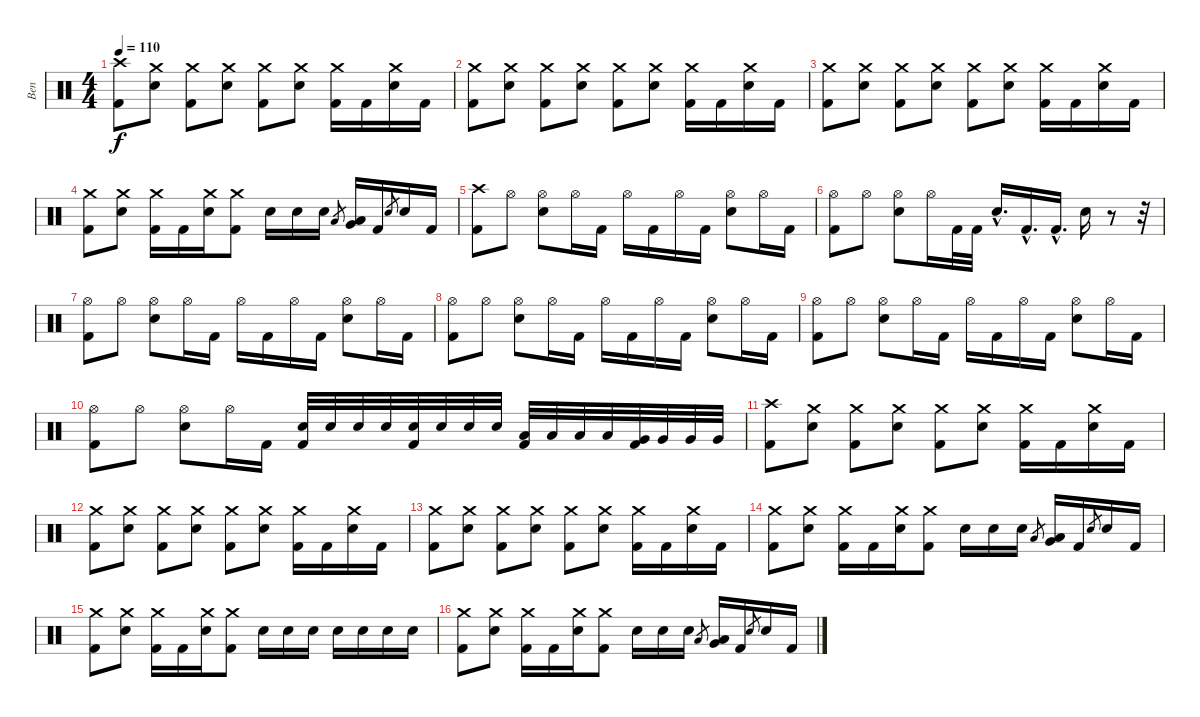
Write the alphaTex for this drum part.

\track ("Ben" "Ben") {instrument percussion}
\staff {score}
\articulation defaults
\ts (4 4)
\tempo 110
\clef neutral
\ks c
("Crash high (hit)" "Kick (hit) 2").8{dy f} ("Crash medium (hit)" "Snare (hit) 2").8 ("Crash medium (hit)" "Kick (hit) 2").8 ("Crash medium (hit)" "Snare (hit) 2").8 ("Crash medium (hit)" "Kick (hit) 2").8 ("Crash medium (hit)" "Snare (hit) 2").8 ("Crash medium (hit)" "Kick (hit) 2").16 "Kick (hit) 2".16 ("Crash medium (hit)" "Snare (hit) 2").16 "Kick (hit) 2".16 |
("Crash medium (hit)" "Kick (hit) 2").8 ("Crash medium (hit)" "Snare (hit) 2").8 ("Crash medium (hit)" "Kick (hit) 2").8 ("Crash medium (hit)" "Snare (hit) 2").8 ("Crash medium (hit)" "Kick (hit) 2").8 ("Crash medium (hit)" "Snare (hit) 2").8 ("Crash medium (hit)" "Kick (hit) 2").16 "Kick (hit) 2".16 ("Crash medium (hit)" "Snare (hit) 2").16 "Kick (hit) 2".16 |
("Crash medium (hit)" "Kick (hit) 2").8 ("Crash medium (hit)" "Snare (hit) 2").8 ("Crash medium (hit)" "Kick (hit) 2").8 ("Crash medium (hit)" "Snare (hit) 2").8 ("Crash medium (hit)" "Kick (hit) 2").8 ("Crash medium (hit)" "Snare (hit) 2").8 ("Crash medium (hit)" "Kick (hit) 2").16 "Kick (hit) 2".16 ("Crash medium (hit)" "Snare (hit) 2").16 "Kick (hit) 2".16 |
("Crash medium (hit)" "Kick (hit) 2").8 ("Crash medium (hit)" "Snare (hit) 2").8 ("Crash medium (hit)" "Kick (hit) 2").16 "Kick (hit) 2".16 ("Crash medium (hit)" "Snare (hit) 2").16 ("Crash medium (hit)" "Kick (hit) 2").8 "Snare (hit) 2".16 "Snare (hit) 2".16 "Snare (hit) 2".16 "Low Floor Tom (hit)".8{gr} ("Low Floor Tom (hit)" "Very Low Tom (hit)").16 "Kick (hit) 2".16 "Snare (hit) 2".8{gr} "Snare (hit) 2".16 "Kick (hit) 2".16 |
("Crash high (hit)" "Kick (hit) 2").8 "Hi-Hat (open)".8 ("Hi-Hat (open)" "Snare (hit) 2").8 "Hi-Hat (open)".16 "Kick (hit) 2".16 "Hi-Hat (open)".16 "Kick (hit) 2".16 "Hi-Hat (open)".16 "Kick (hit) 2".16 ("Hi-Hat (open)" "Snare (hit) 2").8 "Hi-Hat (open)".16 "Kick (hit) 2".16 |
("Hi-Hat (open)" "Kick (hit) 2").8 "Hi-Hat (open)".8 ("Hi-Hat (open)" "Snare (hit) 2").8 "Hi-Hat (open)".16 "Kick (hit) 2".32 "Kick (hit) 2".32 "Snare (hit) 2"{hac}.16{d} "Kick (hit) 2"{hac}.16{d} "Kick (hit) 2"{hac}.16{d} "Snare (hit) 2".16 r.8 r.32 |
("Hi-Hat (open)" "Kick (hit) 2").8 "Hi-Hat (open)".8 ("Hi-Hat (open)" "Snare (hit) 2").8 "Hi-Hat (open)".16 "Kick (hit) 2".16 "Hi-Hat (open)".16 "Kick (hit) 2".16 "Hi-Hat (open)".16 "Kick (hit) 2".16 ("Hi-Hat (open)" "Snare (hit) 2").8 "Hi-Hat (open)".16 "Kick (hit) 2".16 |
("Hi-Hat (open)" "Kick (hit) 2").8 "Hi-Hat (open)".8 ("Hi-Hat (open)" "Snare (hit) 2").8 "Hi-Hat (open)".16 "Kick (hit) 2".16 "Hi-Hat (open)".16 "Kick (hit) 2".16 "Hi-Hat (open)".16 "Kick (hit) 2".16 ("Hi-Hat (open)" "Snare (hit) 2").8 "Hi-Hat (open)".16 "Kick (hit) 2".16 |
("Hi-Hat (open)" "Kick (hit) 2").8 "Hi-Hat (open)".8 ("Hi-Hat (open)" "Snare (hit) 2").8 "Hi-Hat (open)".16 "Kick (hit) 2".16 "Hi-Hat (open)".16 "Kick (hit) 2".16 "Hi-Hat (open)".16 "Kick (hit) 2".16 ("Hi-Hat (open)" "Snare (hit) 2").8 "Hi-Hat (open)".16 "Kick (hit) 2".16 |
("Hi-Hat (open)" "Kick (hit) 2").8 "Hi-Hat (open)".8 ("Hi-Hat (open)" "Snare (hit) 2").8 "Hi-Hat (open)".16 "Kick (hit) 2".16 ("Kick (hit) 2" "Snare (hit) 2").32 "Snare (hit) 2".32 "Snare (hit) 2".32 "Snare (hit) 2".32 ("Kick (hit) 2" "Snare (hit) 2").32 "Snare (hit) 2".32 "Snare (hit) 2".32 "Snare (hit) 2".32 ("Kick (hit) 2" "Low Tom (hit)").32 "Low Tom (hit)".32 "Low Tom (hit)".32 "Low Tom (hit)".32 ("Kick (hit) 2" "Very Low Tom (hit)").32 "Very Low Tom (hit)".32 "Very Low Tom (hit)".32 "Very Low Tom (hit)".32 |
("Crash high (hit)" "Kick (hit) 2").8 ("Crash medium (hit)" "Snare (hit) 2").8 ("Crash medium (hit)" "Kick (hit) 2").8 ("Crash medium (hit)" "Snare (hit) 2").8 ("Crash medium (hit)" "Kick (hit) 2").8 ("Crash medium (hit)" "Snare (hit) 2").8 ("Crash medium (hit)" "Kick (hit) 2").16 "Kick (hit) 2".16 ("Crash medium (hit)" "Snare (hit) 2").16 "Kick (hit) 2".16 |
("Crash medium (hit)" "Kick (hit) 2").8 ("Crash medium (hit)" "Snare (hit) 2").8 ("Crash medium (hit)" "Kick (hit) 2").8 ("Crash medium (hit)" "Snare (hit) 2").8 ("Crash medium (hit)" "Kick (hit) 2").8 ("Crash medium (hit)" "Snare (hit) 2").8 ("Crash medium (hit)" "Kick (hit) 2").16 "Kick (hit) 2".16 ("Crash medium (hit)" "Snare (hit) 2").16 "Kick (hit) 2".16 |
("Crash medium (hit)" "Kick (hit) 2").8 ("Crash medium (hit)" "Snare (hit) 2").8 ("Crash medium (hit)" "Kick (hit) 2").8 ("Crash medium (hit)" "Snare (hit) 2").8 ("Crash medium (hit)" "Kick (hit) 2").8 ("Crash medium (hit)" "Snare (hit) 2").8 ("Crash medium (hit)" "Kick (hit) 2").16 "Kick (hit) 2".16 ("Crash medium (hit)" "Snare (hit) 2").16 "Kick (hit) 2".16 |
("Crash medium (hit)" "Kick (hit) 2").8 ("Crash medium (hit)" "Snare (hit) 2").8 ("Crash medium (hit)" "Kick (hit) 2").16 "Kick (hit) 2".16 ("Crash medium (hit)" "Snare (hit) 2").16 ("Crash medium (hit)" "Kick (hit) 2").8 "Snare (hit) 2".16 "Snare (hit) 2".16 "Snare (hit) 2".16 "Low Floor Tom (hit)".8{gr} ("Low Floor Tom (hit)" "Very Low Tom (hit)").16 "Kick (hit) 2".16 "Snare (hit) 2".8{gr} "Snare (hit) 2".16 "Kick (hit) 2".16 |
("Crash medium (hit)" "Kick (hit) 2").8 ("Crash medium (hit)" "Snare (hit) 2").8 ("Crash medium (hit)" "Kick (hit) 2").16 "Kick (hit) 2".16 ("Crash medium (hit)" "Snare (hit) 2").16 ("Crash medium (hit)" "Kick (hit) 2").8 "Snare (hit) 2".16 "Snare (hit) 2".16 "Snare (hit) 2".16 "Snare (hit) 2".16 "Snare (hit) 2".16 "Snare (hit) 2".16 "Snare (hit) 2".16 |
("Crash medium (hit)" "Kick (hit) 2").8 ("Crash medium (hit)" "Snare (hit) 2").8 ("Crash medium (hit)" "Kick (hit) 2").16 "Kick (hit) 2".16 ("Crash medium (hit)" "Snare (hit) 2").16 ("Crash medium (hit)" "Kick (hit) 2").8 "Snare (hit) 2".16 "Snare (hit) 2".16 "Snare (hit) 2".16 "Low Floor Tom (hit)".8{gr} ("Low Floor Tom (hit)" "Very Low Tom (hit)").16 "Kick (hit) 2".16 "Snare (hit) 2".8{gr} "Snare (hit) 2".16 "Kick (hit) 2".16
